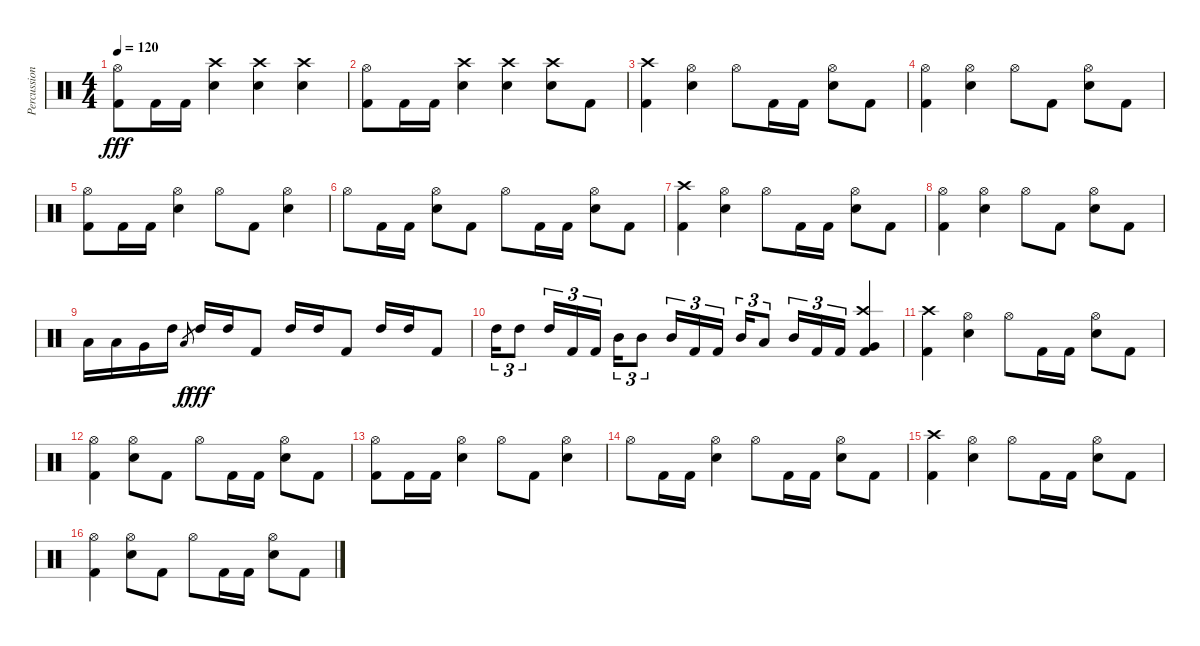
\track ("Percussion" "Percussion") {instrument percussion}
\staff {score}
\articulation defaults
\ts (4 4)
\tempo 120
\clef neutral
\ks c
("Hi-Hat (open)" "Kick (hit) 2").8{dy fff} "Kick (hit) 2".16 "Kick (hit) 2".16 ("Crash high (hit)" "Snare (hit) 2").4 ("Crash high (hit)" "Snare (hit) 2").4 ("Crash high (hit)" "Snare (hit) 2").4 |
("Hi-Hat (open)" "Kick (hit) 2").8 "Kick (hit) 2".16 "Kick (hit) 2".16 ("Crash high (hit)" "Snare (hit) 2").4 ("Crash high (hit)" "Snare (hit) 2").4 ("Crash high (hit)" "Snare (hit) 2").8 "Kick (hit) 2".8 |
("Crash high (hit)" "Kick (hit) 2").4 ("Hi-Hat (open)" "Snare (hit) 2").4 "Hi-Hat (open)".8 "Kick (hit) 2".16 "Kick (hit) 2".16 ("Hi-Hat (open)" "Snare (hit) 2").8 "Kick (hit) 2".8 |
("Hi-Hat (open)" "Kick (hit) 2").4 ("Hi-Hat (open)" "Snare (hit) 2").4 "Hi-Hat (open)".8 "Kick (hit) 2".8 ("Hi-Hat (open)" "Snare (hit) 2").8 "Kick (hit) 2".8 |
("Hi-Hat (open)" "Kick (hit) 2").8 "Kick (hit) 2".16 "Kick (hit) 2".16 ("Hi-Hat (open)" "Snare (hit) 2").4 "Hi-Hat (open)".8 "Kick (hit) 2".8 ("Hi-Hat (open)" "Snare (hit) 2").4 |
"Hi-Hat (open)".8 "Kick (hit) 2".16 "Kick (hit) 2".16 ("Hi-Hat (open)" "Snare (hit) 2").8 "Kick (hit) 2".8 "Hi-Hat (open)".8 "Kick (hit) 2".16 "Kick (hit) 2".16 ("Hi-Hat (open)" "Snare (hit) 2").8 "Kick (hit) 2".8 |
("Crash high (hit)" "Kick (hit) 2").4 ("Hi-Hat (open)" "Snare (hit) 2").4 "Hi-Hat (open)".8 "Kick (hit) 2".16 "Kick (hit) 2".16 ("Hi-Hat (open)" "Snare (hit) 2").8 "Kick (hit) 2".8 |
("Hi-Hat (open)" "Kick (hit) 2").4 ("Hi-Hat (open)" "Snare (hit) 2").4 "Hi-Hat (open)".8 "Kick (hit) 2".8 ("Hi-Hat (open)" "Snare (hit) 2").8 "Kick (hit) 2".8 |
"Low Tom (hit)".16 "Low Tom (hit)".16 "Very Low Tom (hit)".16 "High Tom (hit)".16 "Low Tom (hit)".8{gr dy f} "High Tom (hit)".16{dy fff} "High Tom (hit)".16 "Kick (hit) 2".8 "High Tom (hit)".16 "High Tom (hit)".16 "Kick (hit) 2".8 "High Tom (hit)".16 "High Tom (hit)".16 "Kick (hit) 2".8 |
"High Tom (hit)".16{tu (3 2)} "High Tom (hit)".8{tu (3 2)} "High Tom (hit)".16{tu (3 2)} "Kick (hit) 2".16{tu (3 2)} "Kick (hit) 2".16{tu (3 2)} "Mid Tom (hit)".16{tu (3 2)} "Mid Tom (hit)".8{tu (3 2)} "Mid Tom (hit)".16{tu (3 2)} "Kick (hit) 2".16{tu (3 2)} "Kick (hit) 2".16{tu (3 2)} "Mid Tom (hit)".16{tu (3 2)} "Low Tom (hit)".8{tu (3 2)} "Mid Tom (hit)".16{tu (3 2)} "Kick (hit) 2".16{tu (3 2)} "Kick (hit) 2".16{tu (3 2)} ("Crash high (hit)" "Very Low Tom (hit)" "Kick (hit) 2").4 |
("Crash high (hit)" "Kick (hit) 2").4 ("Hi-Hat (open)" "Snare (hit) 2").4 "Hi-Hat (open)".8 "Kick (hit) 2".16 "Kick (hit) 2".16 ("Hi-Hat (open)" "Snare (hit) 2").8 "Kick (hit) 2".8 |
("Hi-Hat (open)" "Kick (hit) 2").4 ("Hi-Hat (open)" "Snare (hit) 2").8 "Kick (hit) 2".8 "Hi-Hat (open)".8 "Kick (hit) 2".16 "Kick (hit) 2".16 ("Hi-Hat (open)" "Snare (hit) 2").8 "Kick (hit) 2".8 |
("Hi-Hat (open)" "Kick (hit) 2").8 "Kick (hit) 2".16 "Kick (hit) 2".16 ("Hi-Hat (open)" "Snare (hit) 2").4 "Hi-Hat (open)".8 "Kick (hit) 2".8 ("Hi-Hat (open)" "Snare (hit) 2").4 |
"Hi-Hat (open)".8 "Kick (hit) 2".16 "Kick (hit) 2".16 ("Hi-Hat (open)" "Snare (hit) 2").4 "Hi-Hat (open)".8 "Kick (hit) 2".16 "Kick (hit) 2".16 ("Hi-Hat (open)" "Snare (hit) 2").8 "Kick (hit) 2".8 |
("Crash high (hit)" "Kick (hit) 2").4 ("Hi-Hat (open)" "Snare (hit) 2").4 "Hi-Hat (open)".8 "Kick (hit) 2".16 "Kick (hit) 2".16 ("Hi-Hat (open)" "Snare (hit) 2").8 "Kick (hit) 2".8 |
("Hi-Hat (open)" "Kick (hit) 2").4 ("Hi-Hat (open)" "Snare (hit) 2").8 "Kick (hit) 2".8 "Hi-Hat (open)".8 "Kick (hit) 2".16 "Kick (hit) 2".16 ("Hi-Hat (open)" "Snare (hit) 2").8 "Kick (hit) 2".8
